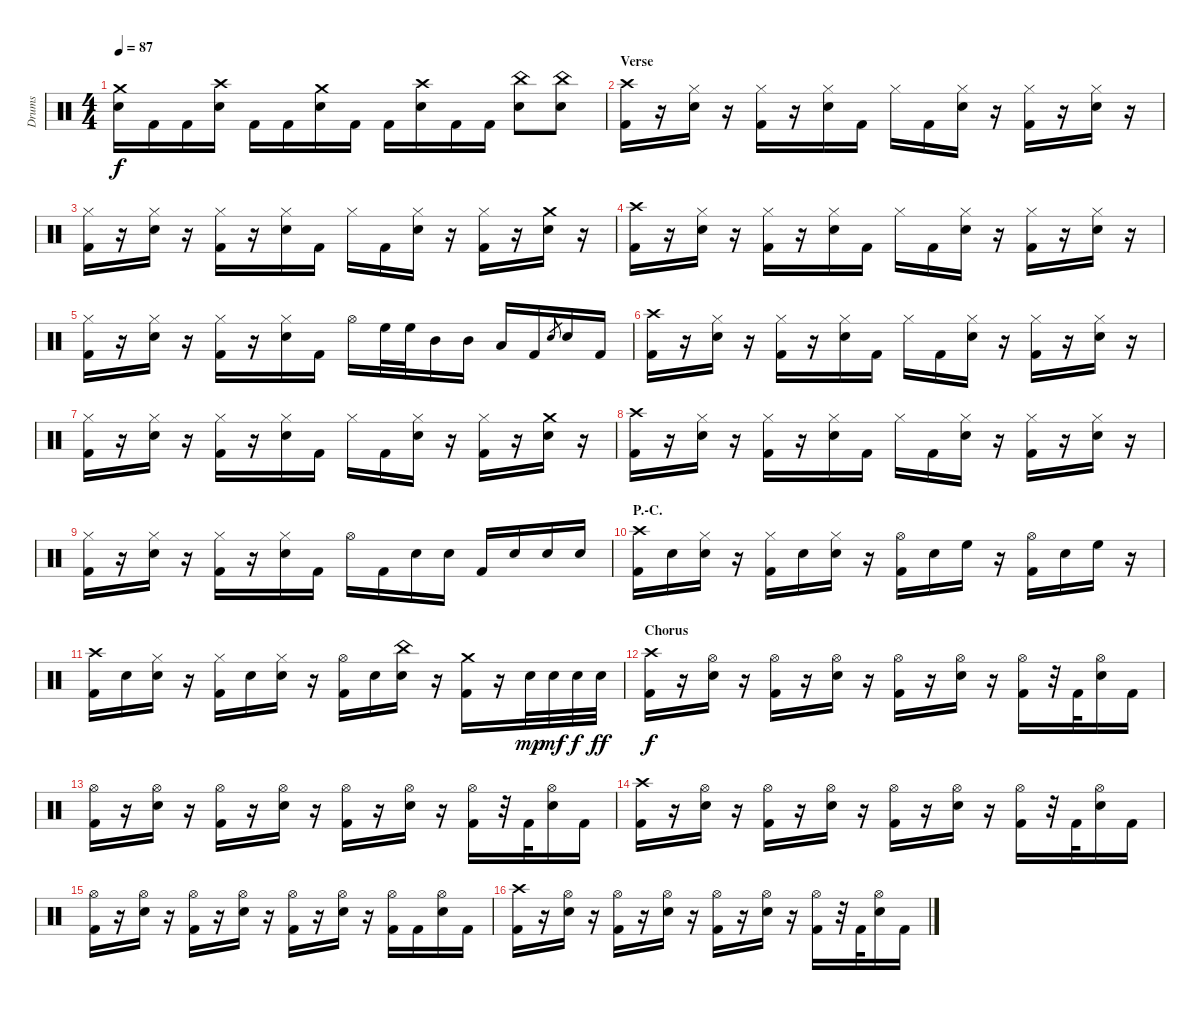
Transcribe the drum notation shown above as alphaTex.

\track ("Drums" "Drums") {instrument percussion}
\staff {score}
\articulation defaults
\ts (4 4)
\tempo 87
\clef neutral
\ks c
("Crash medium (hit)" "Electric Snare (hit)").16{dy f} "Kick (hit) 2".16 "Kick (hit) 2".16 ("Crash high (hit)" "Electric Snare (hit)").16 "Kick (hit) 2".16 "Kick (hit) 2".16 ("Crash medium (hit)" "Electric Snare (hit)").16 "Kick (hit) 2".16 "Kick (hit) 2".16 ("Crash high (hit)" "Electric Snare (hit)").16 "Kick (hit) 2".16 "Kick (hit) 2".16 ("China (hit)" "Electric Snare (hit)").8 ("China (hit)" "Electric Snare (hit)").8 |
\section ("" "Verse")
("Crash high (hit)" "Kick (hit) 2").16 r.16 ("Hi-Hat (closed)" "Electric Snare (hit)").16 r.16 ("Hi-Hat (closed)" "Kick (hit) 2").16 r.16 ("Hi-Hat (closed)" "Electric Snare (hit)").16 "Kick (hit) 2".16 "Hi-Hat (closed)".16 "Kick (hit) 2".16 ("Hi-Hat (closed)" "Electric Snare (hit)").16 r.16 ("Hi-Hat (closed)" "Kick (hit) 2").16 r.16 ("Hi-Hat (closed)" "Electric Snare (hit)").16 r.16 |
("Hi-Hat (closed)" "Kick (hit) 2").16 r.16 ("Hi-Hat (closed)" "Electric Snare (hit)").16 r.16 ("Hi-Hat (closed)" "Kick (hit) 2").16 r.16 ("Hi-Hat (closed)" "Electric Snare (hit)").16 "Kick (hit) 2".16 "Hi-Hat (closed)".16 "Kick (hit) 2".16 ("Hi-Hat (closed)" "Electric Snare (hit)").16 r.16 ("Hi-Hat (closed)" "Kick (hit) 2").16 r.16 ("Crash medium (hit)" "Electric Snare (hit)").16 r.16 |
("Crash high (hit)" "Kick (hit) 2").16 r.16 ("Hi-Hat (closed)" "Electric Snare (hit)").16 r.16 ("Hi-Hat (closed)" "Kick (hit) 2").16 r.16 ("Hi-Hat (closed)" "Electric Snare (hit)").16 "Kick (hit) 2".16 "Hi-Hat (closed)".16 "Kick (hit) 2".16 ("Hi-Hat (closed)" "Electric Snare (hit)").16 r.16 ("Hi-Hat (closed)" "Kick (hit) 2").16 r.16 ("Hi-Hat (closed)" "Electric Snare (hit)").16 r.16 |
("Hi-Hat (closed)" "Kick (hit) 2").16 r.16 ("Hi-Hat (closed)" "Electric Snare (hit)").16 r.16 ("Hi-Hat (closed)" "Kick (hit) 2").16 r.16 ("Hi-Hat (closed)" "Electric Snare (hit)").16 "Kick (hit) 2".16 "Hi-Hat (open)".16 "High Floor Tom (hit)".32 "High Floor Tom (hit)".32 "Mid Tom (hit)".16 "Mid Tom (hit)".16 "Low Tom (hit)".16 "Kick (hit) 2".16 "Electric Snare (hit)".8{gr} "Electric Snare (hit)".16 "Kick (hit) 2".16 |
("Crash high (hit)" "Kick (hit) 2").16 r.16 ("Hi-Hat (closed)" "Electric Snare (hit)").16 r.16 ("Hi-Hat (closed)" "Kick (hit) 2").16 r.16 ("Hi-Hat (closed)" "Electric Snare (hit)").16 "Kick (hit) 2".16 "Hi-Hat (closed)".16 "Kick (hit) 2".16 ("Hi-Hat (closed)" "Electric Snare (hit)").16 r.16 ("Hi-Hat (closed)" "Kick (hit) 2").16 r.16 ("Hi-Hat (closed)" "Electric Snare (hit)").16 r.16 |
("Hi-Hat (closed)" "Kick (hit) 2").16 r.16 ("Hi-Hat (closed)" "Electric Snare (hit)").16 r.16 ("Hi-Hat (closed)" "Kick (hit) 2").16 r.16 ("Hi-Hat (closed)" "Electric Snare (hit)").16 "Kick (hit) 2".16 "Hi-Hat (closed)".16 "Kick (hit) 2".16 ("Hi-Hat (closed)" "Electric Snare (hit)").16 r.16 ("Hi-Hat (closed)" "Kick (hit) 2").16 r.16 ("Crash medium (hit)" "Electric Snare (hit)").16 r.16 |
("Crash high (hit)" "Kick (hit) 2").16 r.16 ("Hi-Hat (closed)" "Electric Snare (hit)").16 r.16 ("Hi-Hat (closed)" "Kick (hit) 2").16 r.16 ("Hi-Hat (closed)" "Electric Snare (hit)").16 "Kick (hit) 2".16 "Hi-Hat (closed)".16 "Kick (hit) 2".16 ("Hi-Hat (closed)" "Electric Snare (hit)").16 r.16 ("Hi-Hat (closed)" "Kick (hit) 2").16 r.16 ("Hi-Hat (closed)" "Electric Snare (hit)").16 r.16 |
("Hi-Hat (closed)" "Kick (hit) 2").16 r.16 ("Hi-Hat (closed)" "Electric Snare (hit)").16 r.16 ("Hi-Hat (closed)" "Kick (hit) 2").16 r.16 ("Hi-Hat (closed)" "Electric Snare (hit)").16 "Kick (hit) 2".16 "Hi-Hat (open)".16 "Kick (hit) 2".16 "Electric Snare (hit)".16 "Electric Snare (hit)".16 "Kick (hit) 2".16 "Electric Snare (hit)".16 "Electric Snare (hit)".16 "Electric Snare (hit)".16 |
\section ("" "P.-C.")
("Crash high (hit)" "Kick (hit) 2").16 "Electric Snare (hit)".16 ("Hi-Hat (closed)" "Electric Snare (hit)").16 r.16 ("Hi-Hat (closed)" "Kick (hit) 2").16 "Electric Snare (hit)".16 ("Hi-Hat (closed)" "Electric Snare (hit)").16 r.16 ("Hi-Hat (open)" "Kick (hit) 2").16 "Electric Snare (hit)".16 "High Floor Tom (hit)".16 r.16 ("Hi-Hat (open)" "Kick (hit) 2").16 "Electric Snare (hit)".16 "High Floor Tom (hit)".16 r.16 |
("Crash high (hit)" "Kick (hit) 2").16 "Electric Snare (hit)".16 ("Hi-Hat (closed)" "Electric Snare (hit)").16 r.16 ("Hi-Hat (closed)" "Kick (hit) 2").16 "Electric Snare (hit)".16 ("Hi-Hat (closed)" "Electric Snare (hit)").16 r.16 ("Hi-Hat (open)" "Kick (hit) 2").16 "Electric Snare (hit)".16 ("China (hit)" "Electric Snare (hit)").16 r.16 ("Crash medium (hit)" "Kick (hit) 2").16 r.16 "Electric Snare (hit)".32{dy mp} "Electric Snare (hit)".32{dy mf} "Electric Snare (hit)".32{dy f} "Electric Snare (hit)".32{dy ff} |
\section ("" "Chorus")
("Crash high (hit)" "Kick (hit) 2").16{dy f} r.16 ("Hi-Hat (open)" "Electric Snare (hit)").16 r.16 ("Hi-Hat (open)" "Kick (hit) 2").16 r.16 ("Hi-Hat (open)" "Electric Snare (hit)").16 r.16 ("Hi-Hat (open)" "Kick (hit) 2").16 r.16 ("Hi-Hat (open)" "Electric Snare (hit)").16 r.16 ("Hi-Hat (open)" "Kick (hit) 2").16 r.32 "Kick (hit) 2".32 ("Hi-Hat (open)" "Electric Snare (hit)").16 "Kick (hit) 2".16 |
("Hi-Hat (open)" "Kick (hit) 2").16 r.16 ("Hi-Hat (open)" "Electric Snare (hit)").16 r.16 ("Hi-Hat (open)" "Kick (hit) 2").16 r.16 ("Hi-Hat (open)" "Electric Snare (hit)").16 r.16 ("Hi-Hat (open)" "Kick (hit) 2").16 r.16 ("Hi-Hat (open)" "Electric Snare (hit)").16 r.16 ("Hi-Hat (open)" "Kick (hit) 2").16 r.32 "Kick (hit) 2".32 ("Hi-Hat (open)" "Electric Snare (hit)").16 "Kick (hit) 2".16 |
("Crash high (hit)" "Kick (hit) 2").16 r.16 ("Hi-Hat (open)" "Electric Snare (hit)").16 r.16 ("Hi-Hat (open)" "Kick (hit) 2").16 r.16 ("Hi-Hat (open)" "Electric Snare (hit)").16 r.16 ("Hi-Hat (open)" "Kick (hit) 2").16 r.16 ("Hi-Hat (open)" "Electric Snare (hit)").16 r.16 ("Hi-Hat (open)" "Kick (hit) 2").16 r.32 "Kick (hit) 2".32 ("Hi-Hat (open)" "Electric Snare (hit)").16 "Kick (hit) 2".16 |
("Hi-Hat (open)" "Kick (hit) 2").16 r.16 ("Hi-Hat (open)" "Electric Snare (hit)").16 r.16 ("Hi-Hat (open)" "Kick (hit) 2").16 r.16 ("Hi-Hat (open)" "Electric Snare (hit)").16 r.16 ("Hi-Hat (open)" "Kick (hit) 2").16 r.16 ("Hi-Hat (open)" "Electric Snare (hit)").16 r.16 ("Hi-Hat (open)" "Kick (hit) 2").16 "Kick (hit) 2".16 ("Hi-Hat (open)" "Electric Snare (hit)").16 "Kick (hit) 2".16 |
("Crash high (hit)" "Kick (hit) 2").16 r.16 ("Hi-Hat (open)" "Electric Snare (hit)").16 r.16 ("Hi-Hat (open)" "Kick (hit) 2").16 r.16 ("Hi-Hat (open)" "Electric Snare (hit)").16 r.16 ("Hi-Hat (open)" "Kick (hit) 2").16 r.16 ("Hi-Hat (open)" "Electric Snare (hit)").16 r.16 ("Hi-Hat (open)" "Kick (hit) 2").16 r.32 "Kick (hit) 2".32 ("Hi-Hat (open)" "Electric Snare (hit)").16 "Kick (hit) 2".16
